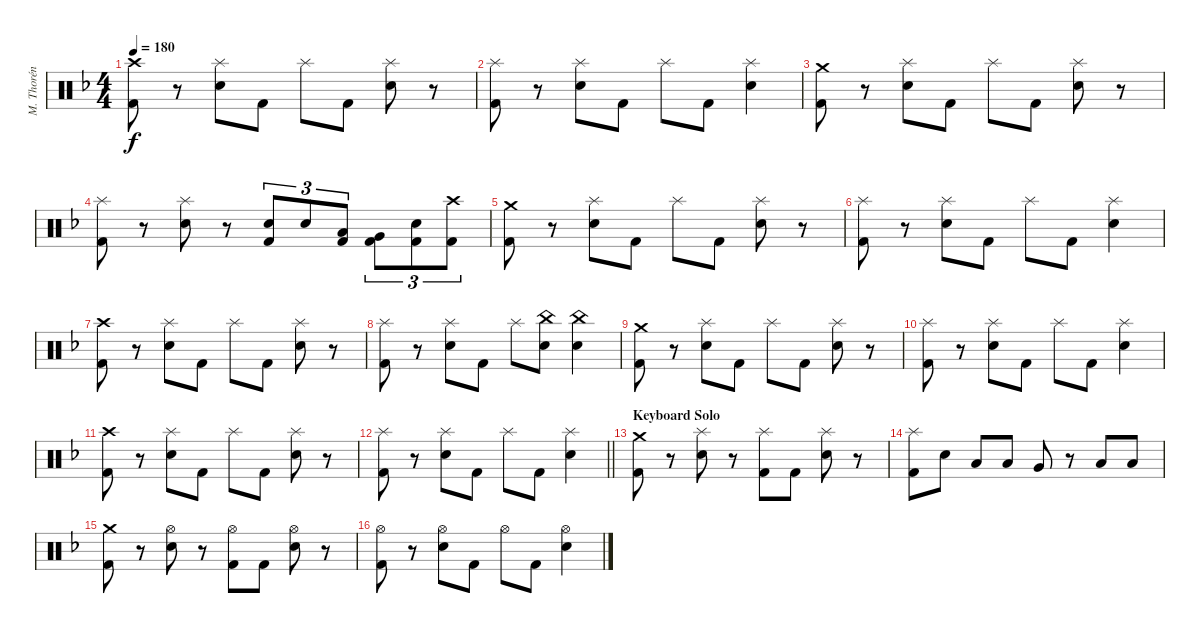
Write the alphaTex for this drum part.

\track ("M. Thorén (Drums)" "M. Thorén ") {instrument percussion}
\staff {score}
\articulation defaults
\ts (4 4)
\tempo 180
\clef neutral
\ks dminor
("Crash high (hit)" "Kick (hit) 2").8{dy f} r.8 ("Splash (hit)" "Electric Snare (hit)").8 "Kick (hit) 2".8 "Splash (hit)".8 "Kick (hit) 2".8 ("Splash (hit)" "Electric Snare (hit)").8 r.8 |
("Splash (hit)" "Kick (hit) 2").8 r.8 ("Splash (hit)" "Electric Snare (hit)").8 "Kick (hit) 2".8 "Splash (hit)".8 "Kick (hit) 2".8 ("Splash (hit)" "Electric Snare (hit)").4 |
("Crash medium (hit)" "Kick (hit) 2").8 r.8 ("Splash (hit)" "Electric Snare (hit)").8 "Kick (hit) 2".8 "Splash (hit)".8 "Kick (hit) 2".8 ("Splash (hit)" "Electric Snare (hit)").8 r.8 |
("Splash (hit)" "Kick (hit) 2").8 r.8 ("Splash (hit)" "Electric Snare (hit)").8 r.8 ("Electric Snare (hit)" "Kick (hit) 2").8{tu (3 2)} "Electric Snare (hit)".8{tu (3 2)} ("Low Tom (hit)" "Kick (hit) 2").8{tu (3 2)} ("Very Low Tom (hit)" "Kick (hit) 2").8{tu (3 2)} ("Electric Snare (hit)" "Kick (hit) 2").8{tu (3 2)} ("Crash high (hit)" "Kick (hit) 2").8{tu (3 2)} |
("Crash medium (hit)" "Kick (hit) 2").8 r.8 ("Splash (hit)" "Electric Snare (hit)").8 "Kick (hit) 2".8 "Splash (hit)".8 "Kick (hit) 2".8 ("Splash (hit)" "Electric Snare (hit)").8 r.8 |
("Splash (hit)" "Kick (hit) 2").8 r.8 ("Splash (hit)" "Electric Snare (hit)").8 "Kick (hit) 2".8 "Splash (hit)".8 "Kick (hit) 2".8 ("Splash (hit)" "Electric Snare (hit)").4 |
("Crash high (hit)" "Kick (hit) 2").8 r.8 ("Splash (hit)" "Electric Snare (hit)").8 "Kick (hit) 2".8 "Splash (hit)".8 "Kick (hit) 2".8 ("Splash (hit)" "Electric Snare (hit)").8 r.8 |
("Splash (hit)" "Kick (hit) 2").8 r.8 ("Splash (hit)" "Electric Snare (hit)").8 "Kick (hit) 2".8 "Splash (hit)".8 ("China (hit)" "Electric Snare (hit)").8 ("China (hit)" "Electric Snare (hit)").4 |
("Crash medium (hit)" "Kick (hit) 2").8 r.8 ("Splash (hit)" "Electric Snare (hit)").8 "Kick (hit) 2".8 "Splash (hit)".8 "Kick (hit) 2".8 ("Splash (hit)" "Electric Snare (hit)").8 r.8 |
("Splash (hit)" "Kick (hit) 2").8 r.8 ("Splash (hit)" "Electric Snare (hit)").8 "Kick (hit) 2".8 "Splash (hit)".8 "Kick (hit) 2".8 ("Splash (hit)" "Electric Snare (hit)").4 |
("Crash high (hit)" "Kick (hit) 2").8 r.8 ("Splash (hit)" "Electric Snare (hit)").8 "Kick (hit) 2".8 "Splash (hit)".8 "Kick (hit) 2".8 ("Splash (hit)" "Electric Snare (hit)").8 r.8 |
\barLineRight lightlight
("Splash (hit)" "Kick (hit) 2").8 r.8 ("Splash (hit)" "Electric Snare (hit)").8 "Kick (hit) 2".8 "Splash (hit)".8 "Kick (hit) 2".8 ("Splash (hit)" "Electric Snare (hit)").4 |
\section ("" "Keyboard Solo")
("Crash medium (hit)" "Kick (hit) 2").8 r.8 ("Splash (hit)" "Electric Snare (hit)").8 r.8 ("Splash (hit)" "Kick (hit) 2").8 "Kick (hit) 2".8 ("Splash (hit)" "Electric Snare (hit)").8 r.8 |
("Splash (hit)" "Kick (hit) 2").8 "Electric Snare (hit)".8 "Low Tom (hit)".8 "Low Tom (hit)".8 "Very Low Tom (hit)".8 r.8 "Low Floor Tom (hit)".8 "Low Floor Tom (hit)".8 |
("Crash medium (hit)" "Kick (hit) 2").8 r.8 ("Hi-Hat (open)" "Electric Snare (hit)").8 r.8 ("Hi-Hat (open)" "Kick (hit) 2").8 "Kick (hit) 2".8 ("Hi-Hat (open)" "Electric Snare (hit)").8 r.8 |
("Hi-Hat (open)" "Kick (hit) 2").8 r.8 ("Hi-Hat (open)" "Electric Snare (hit)").8 "Kick (hit) 2".8 "Hi-Hat (open)".8 "Kick (hit) 2".8 ("Hi-Hat (open)" "Electric Snare (hit)").4
